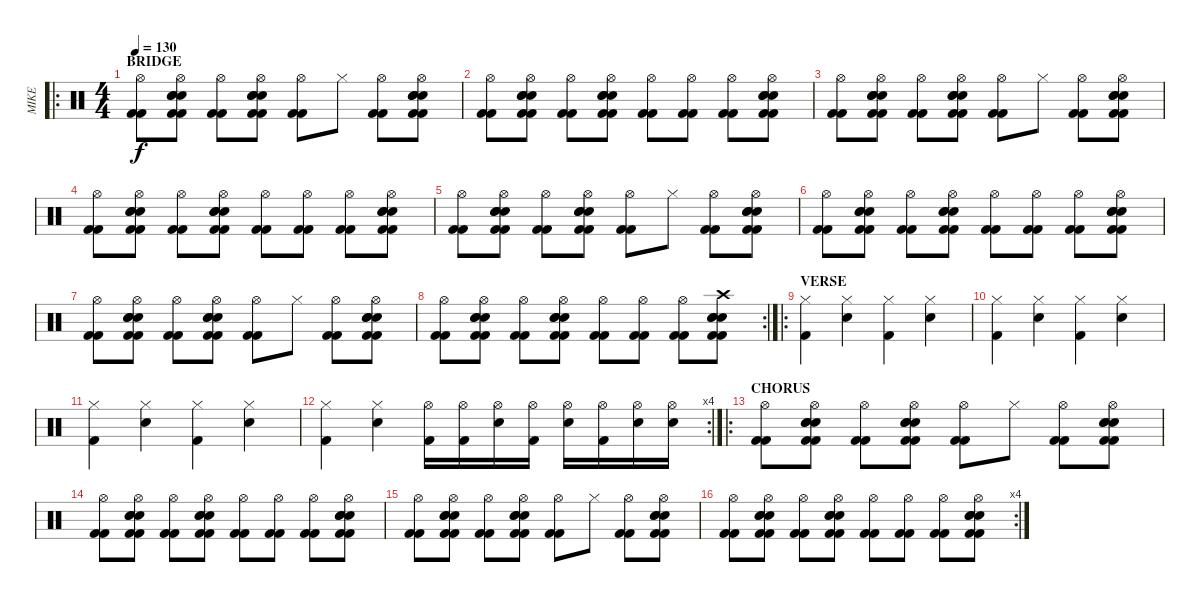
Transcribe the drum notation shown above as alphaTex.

\track ("MIKE" "MIKE") {instrument percussion}
\staff {score}
\articulation defaults
\ro
\ts (4 4)
\section ("" "BRIDGE")
\tempo 130
\clef neutral
\ks c
("Kick (hit) 2" "Hi-Hat (open)" "Kick (hit) 2").8{dy f} ("Kick (hit) 2" "Kick (hit) 2" "Electric Snare (hit)" "Electric Snare (hit)" "Hi-Hat (open)" "Electric Snare (hit)").8 ("Kick (hit) 2" "Hi-Hat (open)" "Kick (hit) 2").8 ("Kick (hit) 2" "Kick (hit) 2" "Electric Snare (hit)" "Electric Snare (hit)" "Hi-Hat (open)" "Electric Snare (hit)").8 ("Kick (hit) 2" "Hi-Hat (open)" "Kick (hit) 2").8 "Hi-Hat (closed)".8 ("Kick (hit) 2" "Hi-Hat (open)" "Kick (hit) 2").8 ("Kick (hit) 2" "Kick (hit) 2" "Electric Snare (hit)" "Electric Snare (hit)" "Hi-Hat (open)" "Electric Snare (hit)").8 |
("Kick (hit) 2" "Hi-Hat (open)" "Kick (hit) 2").8 ("Kick (hit) 2" "Kick (hit) 2" "Electric Snare (hit)" "Electric Snare (hit)" "Hi-Hat (open)" "Electric Snare (hit)").8 ("Kick (hit) 2" "Hi-Hat (open)" "Kick (hit) 2").8 ("Kick (hit) 2" "Kick (hit) 2" "Electric Snare (hit)" "Electric Snare (hit)" "Hi-Hat (open)" "Electric Snare (hit)").8 ("Kick (hit) 2" "Hi-Hat (open)" "Kick (hit) 2").8 ("Kick (hit) 2" "Hi-Hat (open)" "Kick (hit) 2").8 ("Kick (hit) 2" "Hi-Hat (open)" "Kick (hit) 2").8 ("Kick (hit) 2" "Kick (hit) 2" "Electric Snare (hit)" "Electric Snare (hit)" "Hi-Hat (open)" "Electric Snare (hit)").8 |
("Kick (hit) 2" "Hi-Hat (open)" "Kick (hit) 2").8 ("Kick (hit) 2" "Kick (hit) 2" "Electric Snare (hit)" "Electric Snare (hit)" "Hi-Hat (open)" "Electric Snare (hit)").8 ("Kick (hit) 2" "Hi-Hat (open)" "Kick (hit) 2").8 ("Kick (hit) 2" "Kick (hit) 2" "Electric Snare (hit)" "Electric Snare (hit)" "Hi-Hat (open)" "Electric Snare (hit)").8 ("Kick (hit) 2" "Hi-Hat (open)" "Kick (hit) 2").8 "Hi-Hat (closed)".8 ("Kick (hit) 2" "Hi-Hat (open)" "Kick (hit) 2").8 ("Kick (hit) 2" "Kick (hit) 2" "Electric Snare (hit)" "Electric Snare (hit)" "Hi-Hat (open)" "Electric Snare (hit)").8 |
("Kick (hit) 2" "Hi-Hat (open)" "Kick (hit) 2").8 ("Kick (hit) 2" "Kick (hit) 2" "Electric Snare (hit)" "Electric Snare (hit)" "Hi-Hat (open)" "Electric Snare (hit)").8 ("Kick (hit) 2" "Hi-Hat (open)" "Kick (hit) 2").8 ("Kick (hit) 2" "Kick (hit) 2" "Electric Snare (hit)" "Electric Snare (hit)" "Hi-Hat (open)" "Electric Snare (hit)").8 ("Kick (hit) 2" "Hi-Hat (open)" "Kick (hit) 2").8 ("Kick (hit) 2" "Hi-Hat (open)" "Kick (hit) 2").8 ("Kick (hit) 2" "Hi-Hat (open)" "Kick (hit) 2").8 ("Kick (hit) 2" "Kick (hit) 2" "Electric Snare (hit)" "Electric Snare (hit)" "Hi-Hat (open)" "Electric Snare (hit)").8 |
("Kick (hit) 2" "Hi-Hat (open)" "Kick (hit) 2").8 ("Kick (hit) 2" "Kick (hit) 2" "Electric Snare (hit)" "Electric Snare (hit)" "Hi-Hat (open)" "Electric Snare (hit)").8 ("Kick (hit) 2" "Hi-Hat (open)" "Kick (hit) 2").8 ("Kick (hit) 2" "Kick (hit) 2" "Electric Snare (hit)" "Electric Snare (hit)" "Hi-Hat (open)" "Electric Snare (hit)").8 ("Kick (hit) 2" "Hi-Hat (open)" "Kick (hit) 2").8 "Hi-Hat (closed)".8 ("Kick (hit) 2" "Hi-Hat (open)" "Kick (hit) 2").8 ("Kick (hit) 2" "Kick (hit) 2" "Electric Snare (hit)" "Electric Snare (hit)" "Hi-Hat (open)" "Electric Snare (hit)").8 |
("Kick (hit) 2" "Hi-Hat (open)" "Kick (hit) 2").8 ("Kick (hit) 2" "Kick (hit) 2" "Electric Snare (hit)" "Electric Snare (hit)" "Hi-Hat (open)" "Electric Snare (hit)").8 ("Kick (hit) 2" "Hi-Hat (open)" "Kick (hit) 2").8 ("Kick (hit) 2" "Kick (hit) 2" "Electric Snare (hit)" "Electric Snare (hit)" "Hi-Hat (open)" "Electric Snare (hit)").8 ("Kick (hit) 2" "Hi-Hat (open)" "Kick (hit) 2").8 ("Kick (hit) 2" "Hi-Hat (open)" "Kick (hit) 2").8 ("Kick (hit) 2" "Hi-Hat (open)" "Kick (hit) 2").8 ("Kick (hit) 2" "Kick (hit) 2" "Electric Snare (hit)" "Electric Snare (hit)" "Hi-Hat (open)" "Electric Snare (hit)").8 |
("Kick (hit) 2" "Hi-Hat (open)" "Kick (hit) 2").8 ("Kick (hit) 2" "Kick (hit) 2" "Electric Snare (hit)" "Electric Snare (hit)" "Hi-Hat (open)" "Electric Snare (hit)").8 ("Kick (hit) 2" "Hi-Hat (open)" "Kick (hit) 2").8 ("Kick (hit) 2" "Kick (hit) 2" "Electric Snare (hit)" "Electric Snare (hit)" "Hi-Hat (open)" "Electric Snare (hit)").8 ("Kick (hit) 2" "Hi-Hat (open)" "Kick (hit) 2").8 "Hi-Hat (closed)".8 ("Kick (hit) 2" "Hi-Hat (open)" "Kick (hit) 2").8 ("Kick (hit) 2" "Kick (hit) 2" "Electric Snare (hit)" "Electric Snare (hit)" "Hi-Hat (open)" "Electric Snare (hit)").8 |
\rc 2
("Kick (hit) 2" "Hi-Hat (open)" "Kick (hit) 2").8 ("Kick (hit) 2" "Kick (hit) 2" "Electric Snare (hit)" "Electric Snare (hit)" "Hi-Hat (open)" "Electric Snare (hit)").8 ("Kick (hit) 2" "Hi-Hat (open)" "Kick (hit) 2").8 ("Kick (hit) 2" "Kick (hit) 2" "Electric Snare (hit)" "Electric Snare (hit)" "Hi-Hat (open)" "Electric Snare (hit)").8 ("Kick (hit) 2" "Hi-Hat (open)" "Kick (hit) 2").8 ("Kick (hit) 2" "Hi-Hat (open)" "Kick (hit) 2").8 ("Kick (hit) 2" "Hi-Hat (open)" "Kick (hit) 2").8 ("Kick (hit) 2" "Kick (hit) 2" "Electric Snare (hit)" "Electric Snare (hit)" "Crash high (hit)" "Electric Snare (hit)").8 |
\ro
\section ("" "VERSE")
("Hi-Hat (closed)" "Kick (hit) 2").4 ("Hi-Hat (closed)" "Electric Snare (hit)").4 ("Hi-Hat (closed)" "Kick (hit) 2").4 ("Hi-Hat (closed)" "Electric Snare (hit)").4 |
("Hi-Hat (closed)" "Kick (hit) 2").4 ("Hi-Hat (closed)" "Electric Snare (hit)").4 ("Hi-Hat (closed)" "Kick (hit) 2").4 ("Hi-Hat (closed)" "Electric Snare (hit)").4 |
("Hi-Hat (closed)" "Kick (hit) 2").4 ("Hi-Hat (closed)" "Electric Snare (hit)").4 ("Hi-Hat (closed)" "Kick (hit) 2").4 ("Hi-Hat (closed)" "Electric Snare (hit)").4 |
\rc 4
("Hi-Hat (closed)" "Kick (hit) 2").4 ("Hi-Hat (closed)" "Electric Snare (hit)").4 ("Hi-Hat (open)" "Kick (hit) 2").16 ("Hi-Hat (open)" "Kick (hit) 2").16 ("Hi-Hat (open)" "Electric Snare (hit)").16 ("Hi-Hat (open)" "Kick (hit) 2").16 ("Hi-Hat (open)" "Electric Snare (hit)").16 ("Hi-Hat (open)" "Kick (hit) 2").16 ("Hi-Hat (open)" "Electric Snare (hit)").16 ("Hi-Hat (open)" "Electric Snare (hit)").16 |
\ro
\section ("" "CHORUS")
("Kick (hit) 2" "Hi-Hat (open)" "Kick (hit) 2").8 ("Kick (hit) 2" "Kick (hit) 2" "Electric Snare (hit)" "Electric Snare (hit)" "Hi-Hat (open)" "Electric Snare (hit)").8 ("Kick (hit) 2" "Hi-Hat (open)" "Kick (hit) 2").8 ("Kick (hit) 2" "Kick (hit) 2" "Electric Snare (hit)" "Electric Snare (hit)" "Hi-Hat (open)" "Electric Snare (hit)").8 ("Kick (hit) 2" "Hi-Hat (open)" "Kick (hit) 2").8 "Hi-Hat (closed)".8 ("Kick (hit) 2" "Hi-Hat (open)" "Kick (hit) 2").8 ("Kick (hit) 2" "Kick (hit) 2" "Electric Snare (hit)" "Electric Snare (hit)" "Hi-Hat (open)" "Electric Snare (hit)").8 |
("Kick (hit) 2" "Hi-Hat (open)" "Kick (hit) 2").8 ("Kick (hit) 2" "Kick (hit) 2" "Electric Snare (hit)" "Electric Snare (hit)" "Hi-Hat (open)" "Electric Snare (hit)").8 ("Kick (hit) 2" "Hi-Hat (open)" "Kick (hit) 2").8 ("Kick (hit) 2" "Kick (hit) 2" "Electric Snare (hit)" "Electric Snare (hit)" "Hi-Hat (open)" "Electric Snare (hit)").8 ("Kick (hit) 2" "Hi-Hat (open)" "Kick (hit) 2").8 ("Kick (hit) 2" "Hi-Hat (open)" "Kick (hit) 2").8 ("Kick (hit) 2" "Hi-Hat (open)" "Kick (hit) 2").8 ("Kick (hit) 2" "Kick (hit) 2" "Electric Snare (hit)" "Electric Snare (hit)" "Hi-Hat (open)" "Electric Snare (hit)").8 |
("Kick (hit) 2" "Hi-Hat (open)" "Kick (hit) 2").8 ("Kick (hit) 2" "Kick (hit) 2" "Electric Snare (hit)" "Electric Snare (hit)" "Hi-Hat (open)" "Electric Snare (hit)").8 ("Kick (hit) 2" "Hi-Hat (open)" "Kick (hit) 2").8 ("Kick (hit) 2" "Kick (hit) 2" "Electric Snare (hit)" "Electric Snare (hit)" "Hi-Hat (open)" "Electric Snare (hit)").8 ("Kick (hit) 2" "Hi-Hat (open)" "Kick (hit) 2").8 "Hi-Hat (closed)".8 ("Kick (hit) 2" "Hi-Hat (open)" "Kick (hit) 2").8 ("Kick (hit) 2" "Kick (hit) 2" "Electric Snare (hit)" "Electric Snare (hit)" "Hi-Hat (open)" "Electric Snare (hit)").8 |
\rc 4
("Kick (hit) 2" "Hi-Hat (open)" "Kick (hit) 2").8 ("Kick (hit) 2" "Kick (hit) 2" "Electric Snare (hit)" "Electric Snare (hit)" "Hi-Hat (open)" "Electric Snare (hit)").8 ("Kick (hit) 2" "Hi-Hat (open)" "Kick (hit) 2").8 ("Kick (hit) 2" "Kick (hit) 2" "Electric Snare (hit)" "Electric Snare (hit)" "Hi-Hat (open)" "Electric Snare (hit)").8 ("Kick (hit) 2" "Hi-Hat (open)" "Kick (hit) 2").8 ("Kick (hit) 2" "Hi-Hat (open)" "Kick (hit) 2").8 ("Kick (hit) 2" "Hi-Hat (open)" "Kick (hit) 2").8 ("Kick (hit) 2" "Kick (hit) 2" "Electric Snare (hit)" "Electric Snare (hit)" "Hi-Hat (open)" "Electric Snare (hit)").8
